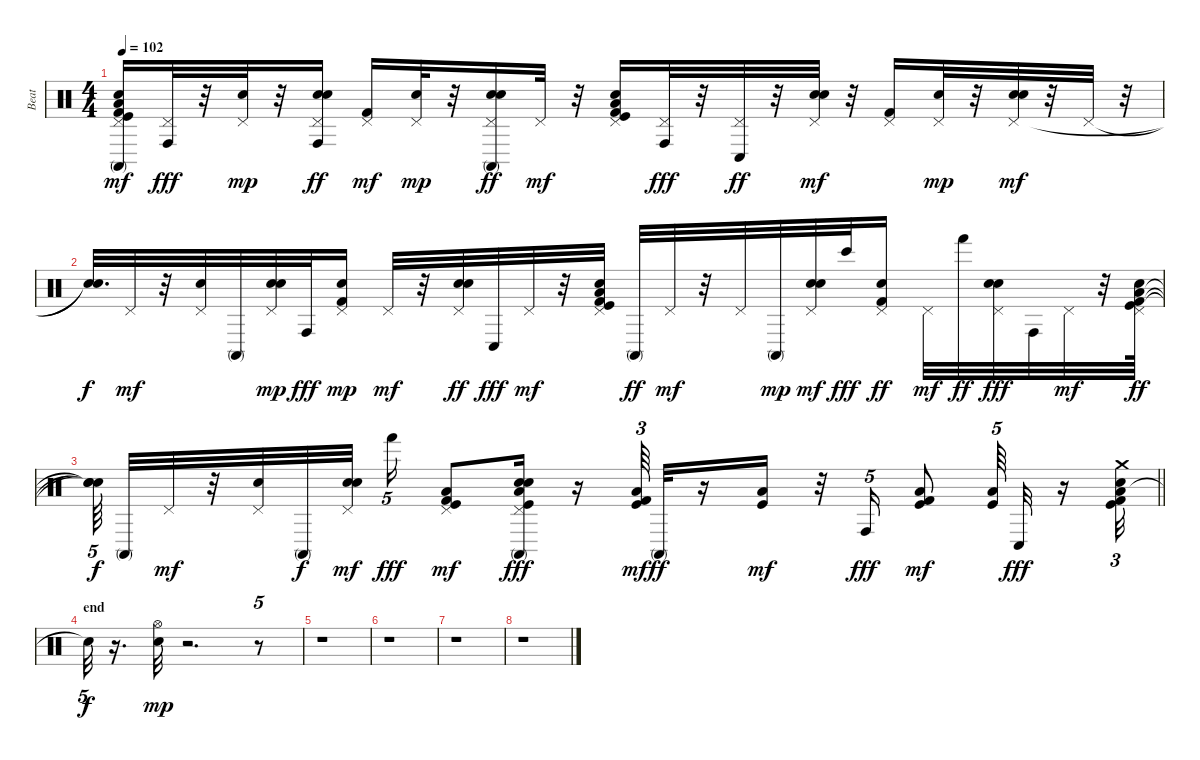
\track ("Beat" "Beat") {instrument percussion}
\staff {score}
\articulation defaults
\ts (4 4)
\tempo 102
\clef neutral
\ks c
("Low Tom (hit)" "Kick (hit)" "Kick (hit) 2" "Pedal Hi-Hat (hit)" "Hand Clap (hit)" "Conga high (mute)").16{dy mf} ("Pedal Hi-Hat (hit)" "Conga high (hit)").32{dy fff} r.32 ("Pedal Hi-Hat (hit)" "Hand Clap (hit)").32{dy mp} r.32 ("Electric Snare (hit)" "Pedal Hi-Hat (hit)" "Hand Clap (hit)" "Conga high (hit)").16{dy ff} ("Kick (hit) 2" "Pedal Hi-Hat (hit)").16{dy mf} ("Pedal Hi-Hat (hit)" "Hand Clap (hit)").32{dy mp} r.32 ("Electric Snare (hit)" "Pedal Hi-Hat (hit)" "Hand Clap (hit)" "Conga high (mute)").16{dy ff} "Pedal Hi-Hat (hit)".32{dy mf} r.32 ("Low Tom (hit)" "Kick (hit)" "Kick (hit) 2" "Pedal Hi-Hat (hit)" "Hand Clap (hit)").16 ("Pedal Hi-Hat (hit)" "Conga high (hit)").32{dy fff} r.32 ("Pedal Hi-Hat (hit)" "Conga low (hit)").32{dy ff} r.32 ("Electric Snare (hit)" "Pedal Hi-Hat (hit)" "Hand Clap (hit)").32{dy mf} r.32 ("Kick (hit) 2" "Pedal Hi-Hat (hit)").16 ("Pedal Hi-Hat (hit)" "Hand Clap (hit)").32{dy mp} r.32 ("Electric Snare (hit)" "Pedal Hi-Hat (hit)" "Hand Clap (hit)").32{dy mf} r.32 "Pedal Hi-Hat (hit)".32 r.32 |
("Snare (hit)"{t} "Snare (hit)"{t}).32{d dy f} "Pedal Hi-Hat (hit)".32{dy mf} r.32 ("Pedal Hi-Hat (hit)" "Hand Clap (hit)").32 "Conga high (mute)".32 ("Electric Snare (hit)" "Pedal Hi-Hat (hit)" "Hand Clap (hit)").32{dy mp} "Conga high (hit)".32{dy fff} ("Kick (hit) 2" "Pedal Hi-Hat (hit)" "Hand Clap (hit)").16{dy mp} "Pedal Hi-Hat (hit)".32{dy mf} r.32 ("Electric Snare (hit)" "Pedal Hi-Hat (hit)" "Hand Clap (hit)").32{dy ff} "Conga low (hit)".32{dy fff} "Pedal Hi-Hat (hit)".32{dy mf} r.32 ("Low Tom (hit)" "Kick (hit)" "Kick (hit) 2" "Pedal Hi-Hat (hit)" "Hand Clap (hit)").32 "Conga high (mute)".32{dy ff} "Pedal Hi-Hat (hit)".32{dy mf} r.32 "Pedal Hi-Hat (hit)".32 "Conga high (mute)".32{dy mp} ("Electric Snare (hit)" "Pedal Hi-Hat (hit)" "Hand Clap (hit)").32{dy mf} "Bongo High (hit)".32{dy fff} ("Kick (hit) 2" "Pedal Hi-Hat (hit)" "Hand Clap (hit)").16{dy ff} "Pedal Hi-Hat (hit)".32{dy mf} "Hand (hit)".32{dy ff} ("Electric Snare (hit)" "Pedal Hi-Hat (hit)" "Hand Clap (hit)").32{dy fff} "Conga high (hit)".32 "Pedal Hi-Hat (hit)".32{dy mf} r.32 ("Low Tom (hit)" "Kick (hit)" "Kick (hit) 2" "Pedal Hi-Hat (hit)" "Hand Clap (hit)").64{dy ff} |
\barLineRight lightlight
("Snare (hit)"{t} "Snare (hit)"{t} "Snare (hit)"{t}).64{tu (5 4) dy f beam splitsecondary} "Conga high (mute)".32 "Pedal Hi-Hat (hit)".32{dy mf} r.32 ("Pedal Hi-Hat (hit)" "Hand Clap (hit)").32 "Conga high (mute)".32{dy f} ("Electric Snare (hit)" "Pedal Hi-Hat (hit)" "Hand Clap (hit)").32{dy mf beam splitsecondary} "Hand (hit)".16{tu (5 4) dy fff} ("Kick (hit)" "Low Tom (hit)" "Kick (hit) 2" "Pedal Hi-Hat (hit)").8{dy mf} ("Kick (hit)" "Low Tom (hit)" "Electric Snare (hit)" "Pedal Hi-Hat (hit)" "Hand Clap (hit)" "Conga high (mute)").16{dy fff} r.16 ("Low Tom (hit)" "Kick (hit)" "Kick (hit) 2").64{tu (3 2) dy mf} "Conga high (mute)".32{dy ff} r.16 ("Low Tom (hit)" "Kick (hit)").16{dy mf} r.32 "Conga high (hit)".16{tu (5 4) dy fff} ("Low Tom (hit)" "Kick (hit)" "Kick (hit) 2").8{dy mf} ("Low Tom (hit)" "Kick (hit)").64{tu (5 4)} "Conga low (hit)".32{dy fff} r.16 ("Low Tom (hit)" "Kick (hit)" "Kick (hit) 2" "Crash medium (hit)" "Hand Clap (hit)").32{tu (3 2)} |
\section ("" "end")
"Snare (hit)"{t}.32{tu (5 4) dy f} r.16{d} ("Hi-Hat (open)" "Metronome (bell)").32{dy mp} r.2{d} r.8{tu (5 4)} |
r.1 |
r.1 |
r.1 |
r.1
